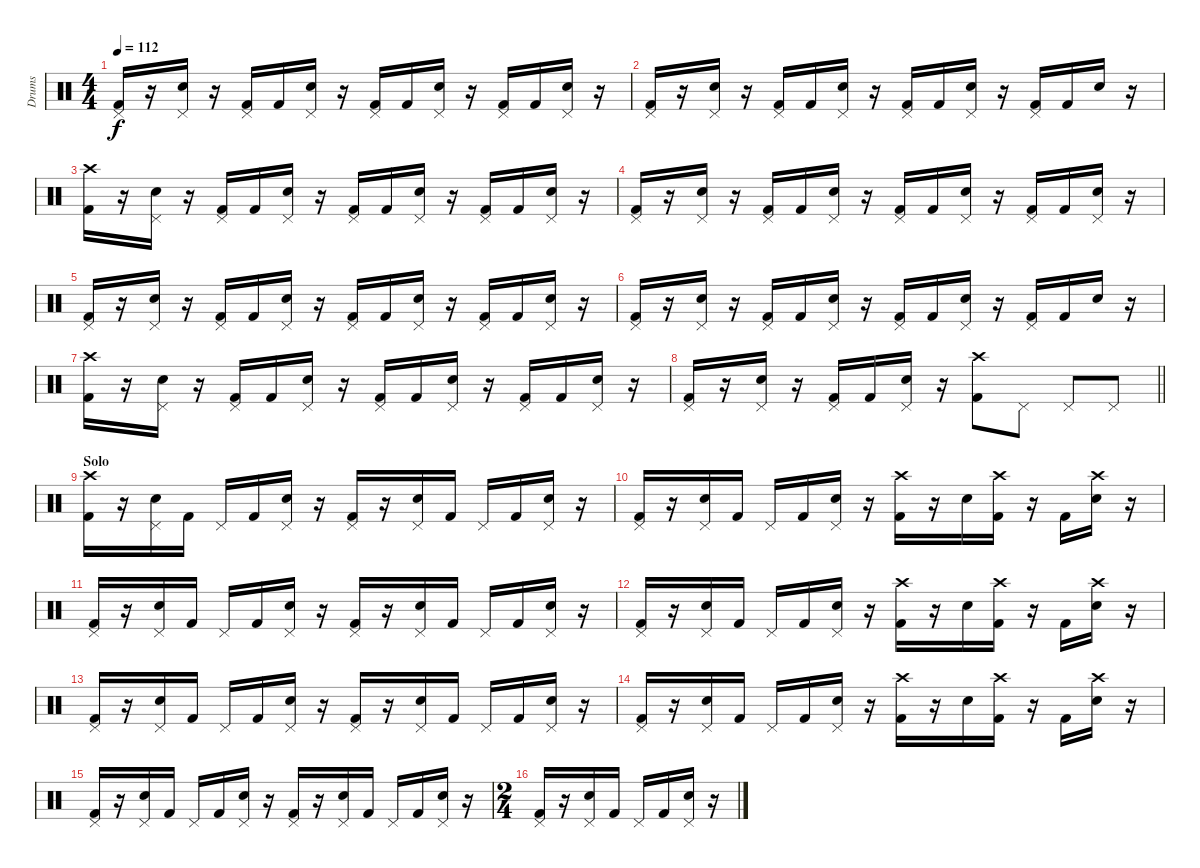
\track ("Drums" "Drums") {instrument percussion}
\staff {score}
\articulation defaults
\ts (4 4)
\tempo 112
\clef neutral
\ks c
("Pedal Hi-Hat (hit)" "Kick (hit) 2").16{dy f} r.16 ("Pedal Hi-Hat (hit)" "Snare (hit) 2").16 r.16 ("Pedal Hi-Hat (hit)" "Kick (hit) 2").16 "Kick (hit) 2".16 ("Pedal Hi-Hat (hit)" "Snare (hit) 2").16 r.16 ("Pedal Hi-Hat (hit)" "Kick (hit) 2").16 "Kick (hit) 2".16 ("Pedal Hi-Hat (hit)" "Snare (hit) 2").16 r.16 ("Pedal Hi-Hat (hit)" "Kick (hit) 2").16 "Kick (hit) 2".16 ("Pedal Hi-Hat (hit)" "Snare (hit) 2").16 r.16 |
("Pedal Hi-Hat (hit)" "Kick (hit) 2").16 r.16 ("Pedal Hi-Hat (hit)" "Snare (hit) 2").16 r.16 ("Pedal Hi-Hat (hit)" "Kick (hit) 2").16 "Kick (hit) 2".16 ("Pedal Hi-Hat (hit)" "Snare (hit) 2").16 r.16 ("Pedal Hi-Hat (hit)" "Kick (hit) 2").16 "Kick (hit) 2".16 ("Pedal Hi-Hat (hit)" "Snare (hit) 2").16 r.16 ("Pedal Hi-Hat (hit)" "Kick (hit) 2").16 "Kick (hit) 2".16 "Snare (hit) 2".16 r.16 |
("Crash high (hit)" "Kick (hit) 2").16 r.16 ("Pedal Hi-Hat (hit)" "Snare (hit) 2").16 r.16 ("Pedal Hi-Hat (hit)" "Kick (hit) 2").16 "Kick (hit) 2".16 ("Pedal Hi-Hat (hit)" "Snare (hit) 2").16 r.16 ("Pedal Hi-Hat (hit)" "Kick (hit) 2").16 "Kick (hit) 2".16 ("Pedal Hi-Hat (hit)" "Snare (hit) 2").16 r.16 ("Pedal Hi-Hat (hit)" "Kick (hit) 2").16 "Kick (hit) 2".16 ("Pedal Hi-Hat (hit)" "Snare (hit) 2").16 r.16 |
("Pedal Hi-Hat (hit)" "Kick (hit) 2").16 r.16 ("Pedal Hi-Hat (hit)" "Snare (hit) 2").16 r.16 ("Pedal Hi-Hat (hit)" "Kick (hit) 2").16 "Kick (hit) 2".16 ("Pedal Hi-Hat (hit)" "Snare (hit) 2").16 r.16 ("Pedal Hi-Hat (hit)" "Kick (hit) 2").16 "Kick (hit) 2".16 ("Pedal Hi-Hat (hit)" "Snare (hit) 2").16 r.16 ("Pedal Hi-Hat (hit)" "Kick (hit) 2").16 "Kick (hit) 2".16 ("Pedal Hi-Hat (hit)" "Snare (hit) 2").16 r.16 |
("Pedal Hi-Hat (hit)" "Kick (hit) 2").16 r.16 ("Pedal Hi-Hat (hit)" "Snare (hit) 2").16 r.16 ("Pedal Hi-Hat (hit)" "Kick (hit) 2").16 "Kick (hit) 2".16 ("Pedal Hi-Hat (hit)" "Snare (hit) 2").16 r.16 ("Pedal Hi-Hat (hit)" "Kick (hit) 2").16 "Kick (hit) 2".16 ("Pedal Hi-Hat (hit)" "Snare (hit) 2").16 r.16 ("Pedal Hi-Hat (hit)" "Kick (hit) 2").16 "Kick (hit) 2".16 ("Pedal Hi-Hat (hit)" "Snare (hit) 2").16 r.16 |
("Pedal Hi-Hat (hit)" "Kick (hit) 2").16 r.16 ("Pedal Hi-Hat (hit)" "Snare (hit) 2").16 r.16 ("Pedal Hi-Hat (hit)" "Kick (hit) 2").16 "Kick (hit) 2".16 ("Pedal Hi-Hat (hit)" "Snare (hit) 2").16 r.16 ("Pedal Hi-Hat (hit)" "Kick (hit) 2").16 "Kick (hit) 2".16 ("Pedal Hi-Hat (hit)" "Snare (hit) 2").16 r.16 ("Pedal Hi-Hat (hit)" "Kick (hit) 2").16 "Kick (hit) 2".16 "Snare (hit) 2".16 r.16 |
("Crash high (hit)" "Kick (hit) 2").16 r.16 ("Pedal Hi-Hat (hit)" "Snare (hit) 2").16 r.16 ("Pedal Hi-Hat (hit)" "Kick (hit) 2").16 "Kick (hit) 2".16 ("Pedal Hi-Hat (hit)" "Snare (hit) 2").16 r.16 ("Pedal Hi-Hat (hit)" "Kick (hit) 2").16 "Kick (hit) 2".16 ("Pedal Hi-Hat (hit)" "Snare (hit) 2").16 r.16 ("Pedal Hi-Hat (hit)" "Kick (hit) 2").16 "Kick (hit) 2".16 ("Pedal Hi-Hat (hit)" "Snare (hit) 2").16 r.16 |
\barLineRight lightlight
("Pedal Hi-Hat (hit)" "Kick (hit) 2").16 r.16 ("Pedal Hi-Hat (hit)" "Snare (hit) 2").16 r.16 ("Pedal Hi-Hat (hit)" "Kick (hit) 2").16 "Kick (hit) 2".16 ("Pedal Hi-Hat (hit)" "Snare (hit) 2").16 r.16 ("Crash high (hit)" "Kick (hit) 2").8 "Pedal Hi-Hat (hit)".8 "Pedal Hi-Hat (hit)".8 "Pedal Hi-Hat (hit)".8 |
\section ("" "Solo")
("Crash high (hit)" "Kick (hit) 2").16 r.16 ("Pedal Hi-Hat (hit)" "Snare (hit) 2").16 "Kick (hit) 2".16 "Pedal Hi-Hat (hit)".16 "Kick (hit) 2".16 ("Pedal Hi-Hat (hit)" "Snare (hit) 2").16 r.16 ("Pedal Hi-Hat (hit)" "Kick (hit) 2").16 r.16 ("Pedal Hi-Hat (hit)" "Snare (hit) 2").16 "Kick (hit) 2".16 "Pedal Hi-Hat (hit)".16 "Kick (hit) 2".16 ("Pedal Hi-Hat (hit)" "Snare (hit) 2").16 r.16 |
("Pedal Hi-Hat (hit)" "Kick (hit) 2").16 r.16 ("Pedal Hi-Hat (hit)" "Snare (hit) 2").16 "Kick (hit) 2".16 "Pedal Hi-Hat (hit)".16 "Kick (hit) 2".16 ("Pedal Hi-Hat (hit)" "Snare (hit) 2").16 r.16 ("Crash high (hit)" "Kick (hit) 2").16 r.16 "Snare (hit) 2".16 ("Crash high (hit)" "Kick (hit) 2").16 r.16 "Kick (hit) 2".16 ("Crash high (hit)" "Snare (hit) 2").16 r.16 |
("Pedal Hi-Hat (hit)" "Kick (hit) 2").16 r.16 ("Pedal Hi-Hat (hit)" "Snare (hit) 2").16 "Kick (hit) 2".16 "Pedal Hi-Hat (hit)".16 "Kick (hit) 2".16 ("Pedal Hi-Hat (hit)" "Snare (hit) 2").16 r.16 ("Pedal Hi-Hat (hit)" "Kick (hit) 2").16 r.16 ("Pedal Hi-Hat (hit)" "Snare (hit) 2").16 "Kick (hit) 2".16 "Pedal Hi-Hat (hit)".16 "Kick (hit) 2".16 ("Pedal Hi-Hat (hit)" "Snare (hit) 2").16 r.16 |
("Pedal Hi-Hat (hit)" "Kick (hit) 2").16 r.16 ("Pedal Hi-Hat (hit)" "Snare (hit) 2").16 "Kick (hit) 2".16 "Pedal Hi-Hat (hit)".16 "Kick (hit) 2".16 ("Pedal Hi-Hat (hit)" "Snare (hit) 2").16 r.16 ("Crash high (hit)" "Kick (hit) 2").16 r.16 "Snare (hit) 2".16 ("Crash high (hit)" "Kick (hit) 2").16 r.16 "Kick (hit) 2".16 ("Crash high (hit)" "Snare (hit) 2").16 r.16 |
("Pedal Hi-Hat (hit)" "Kick (hit) 2").16 r.16 ("Pedal Hi-Hat (hit)" "Snare (hit) 2").16 "Kick (hit) 2".16 "Pedal Hi-Hat (hit)".16 "Kick (hit) 2".16 ("Pedal Hi-Hat (hit)" "Snare (hit) 2").16 r.16 ("Pedal Hi-Hat (hit)" "Kick (hit) 2").16 r.16 ("Pedal Hi-Hat (hit)" "Snare (hit) 2").16 "Kick (hit) 2".16 "Pedal Hi-Hat (hit)".16 "Kick (hit) 2".16 ("Pedal Hi-Hat (hit)" "Snare (hit) 2").16 r.16 |
("Pedal Hi-Hat (hit)" "Kick (hit) 2").16 r.16 ("Pedal Hi-Hat (hit)" "Snare (hit) 2").16 "Kick (hit) 2".16 "Pedal Hi-Hat (hit)".16 "Kick (hit) 2".16 ("Pedal Hi-Hat (hit)" "Snare (hit) 2").16 r.16 ("Crash high (hit)" "Kick (hit) 2").16 r.16 "Snare (hit) 2".16 ("Crash high (hit)" "Kick (hit) 2").16 r.16 "Kick (hit) 2".16 ("Crash high (hit)" "Snare (hit) 2").16 r.16 |
("Pedal Hi-Hat (hit)" "Kick (hit) 2").16 r.16 ("Pedal Hi-Hat (hit)" "Snare (hit) 2").16 "Kick (hit) 2".16 "Pedal Hi-Hat (hit)".16 "Kick (hit) 2".16 ("Pedal Hi-Hat (hit)" "Snare (hit) 2").16 r.16 ("Pedal Hi-Hat (hit)" "Kick (hit) 2").16 r.16 ("Pedal Hi-Hat (hit)" "Snare (hit) 2").16 "Kick (hit) 2".16 "Pedal Hi-Hat (hit)".16 "Kick (hit) 2".16 ("Pedal Hi-Hat (hit)" "Snare (hit) 2").16 r.16 |
\ts (2 4)
("Pedal Hi-Hat (hit)" "Kick (hit) 2").16 r.16 ("Pedal Hi-Hat (hit)" "Snare (hit) 2").16 "Kick (hit) 2".16 "Pedal Hi-Hat (hit)".16 "Kick (hit) 2".16 ("Pedal Hi-Hat (hit)" "Snare (hit) 2").16 r.16
